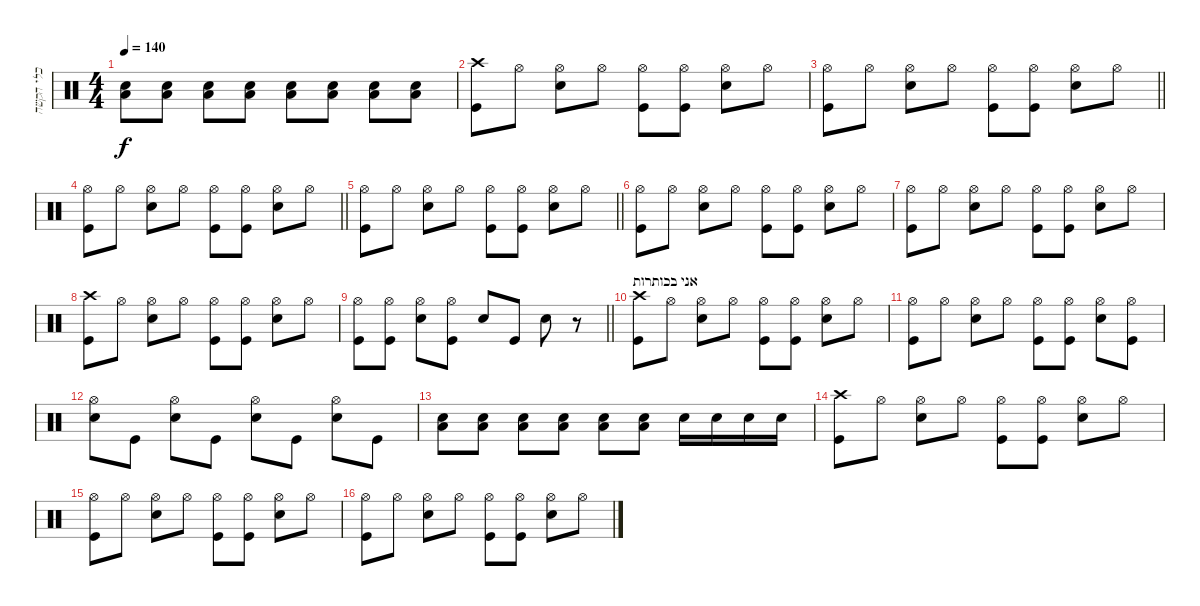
\track ("כלי הקשה" "כלי הקשה") {instrument percussion}
\staff {score}
\articulation defaults
\ts (4 4)
\tempo 140
\clef neutral
\ks c
("Low Floor Tom (hit)" "Snare (hit) 2").8{dy f} ("Low Floor Tom (hit)" "Snare (hit) 2").8 ("Low Floor Tom (hit)" "Snare (hit) 2").8 ("Low Floor Tom (hit)" "Snare (hit) 2").8 ("Low Floor Tom (hit)" "Snare (hit) 2").8 ("Low Floor Tom (hit)" "Snare (hit) 2").8 ("Low Floor Tom (hit)" "Snare (hit) 2").8 ("Low Floor Tom (hit)" "Snare (hit) 2").8 |
("Kick (hit)" "Crash high (hit)").8 "Hi-Hat (open)".8 ("Snare (hit) 2" "Hi-Hat (open)").8 "Hi-Hat (open)".8 ("Kick (hit)" "Hi-Hat (open)").8 ("Kick (hit)" "Hi-Hat (open)").8 ("Snare (hit) 2" "Hi-Hat (open)").8 "Hi-Hat (open)".8 |
\barLineRight lightlight
("Kick (hit)" "Hi-Hat (open)").8 "Hi-Hat (open)".8 ("Snare (hit) 2" "Hi-Hat (open)").8 "Hi-Hat (open)".8 ("Kick (hit)" "Hi-Hat (open)").8 ("Kick (hit)" "Hi-Hat (open)").8 ("Snare (hit) 2" "Hi-Hat (open)").8 "Hi-Hat (open)".8 |
\barLineRight lightlight
("Kick (hit)" "Hi-Hat (open)").8 "Hi-Hat (open)".8 ("Snare (hit) 2" "Hi-Hat (open)").8 "Hi-Hat (open)".8 ("Kick (hit)" "Hi-Hat (open)").8 ("Kick (hit)" "Hi-Hat (open)").8 ("Snare (hit) 2" "Hi-Hat (open)").8 "Hi-Hat (open)".8 |
\barLineRight lightlight
("Kick (hit)" "Hi-Hat (open)").8 "Hi-Hat (open)".8 ("Snare (hit) 2" "Hi-Hat (open)").8 "Hi-Hat (open)".8 ("Kick (hit)" "Hi-Hat (open)").8 ("Kick (hit)" "Hi-Hat (open)").8 ("Snare (hit) 2" "Hi-Hat (open)").8 "Hi-Hat (open)".8 |
("Kick (hit)" "Hi-Hat (open)").8 "Hi-Hat (open)".8 ("Snare (hit) 2" "Hi-Hat (open)").8 "Hi-Hat (open)".8 ("Kick (hit)" "Hi-Hat (open)").8 ("Kick (hit)" "Hi-Hat (open)").8 ("Snare (hit) 2" "Hi-Hat (open)").8 "Hi-Hat (open)".8 |
("Kick (hit)" "Hi-Hat (open)").8 "Hi-Hat (open)".8 ("Snare (hit) 2" "Hi-Hat (open)").8 "Hi-Hat (open)".8 ("Kick (hit)" "Hi-Hat (open)").8 ("Kick (hit)" "Hi-Hat (open)").8 ("Snare (hit) 2" "Hi-Hat (open)").8 "Hi-Hat (open)".8 |
("Kick (hit)" "Crash high (hit)").8 "Hi-Hat (open)".8 ("Snare (hit) 2" "Hi-Hat (open)").8 "Hi-Hat (open)".8 ("Kick (hit)" "Hi-Hat (open)").8 ("Kick (hit)" "Hi-Hat (open)").8 ("Snare (hit) 2" "Hi-Hat (open)").8 "Hi-Hat (open)".8 |
\barLineRight lightlight
("Kick (hit)" "Hi-Hat (open)").8 ("Kick (hit)" "Hi-Hat (open)").8 ("Snare (hit) 2" "Hi-Hat (open)").8 ("Kick (hit)" "Hi-Hat (open)").8 "Snare (hit) 2".8 "Kick (hit)".8 "Snare (hit) 2".8 r.8 |
\section ("" "אני בכותרות")
("Kick (hit)" "Crash high (hit)").8 "Hi-Hat (open)".8 ("Snare (hit) 2" "Hi-Hat (open)").8 "Hi-Hat (open)".8 ("Kick (hit)" "Hi-Hat (open)").8 ("Kick (hit)" "Hi-Hat (open)").8 ("Snare (hit) 2" "Hi-Hat (open)").8 "Hi-Hat (open)".8 |
("Kick (hit)" "Hi-Hat (open)").8 "Hi-Hat (open)".8 ("Snare (hit) 2" "Hi-Hat (open)").8 "Hi-Hat (open)".8 ("Kick (hit)" "Hi-Hat (open)").8 ("Kick (hit)" "Hi-Hat (open)").8 ("Snare (hit) 2" "Hi-Hat (open)").8 ("Kick (hit)" "Hi-Hat (open)").8 |
("Snare (hit) 2" "Hi-Hat (open)").8 "Kick (hit)".8 ("Snare (hit) 2" "Hi-Hat (open)").8 "Kick (hit)".8 ("Snare (hit) 2" "Hi-Hat (open)").8 "Kick (hit)".8 ("Snare (hit) 2" "Hi-Hat (open)").8 "Kick (hit)".8 |
("Low Floor Tom (hit)" "Snare (hit) 2").8 ("Low Floor Tom (hit)" "Snare (hit) 2").8 ("Low Floor Tom (hit)" "Snare (hit) 2").8 ("Low Floor Tom (hit)" "Snare (hit) 2").8 ("Low Floor Tom (hit)" "Snare (hit) 2").8 ("Low Floor Tom (hit)" "Snare (hit) 2").8 "Snare (hit) 2".16 "Snare (hit) 2".16 "Snare (hit) 2".16 "Snare (hit) 2".16 |
("Kick (hit)" "Crash high (hit)").8 "Hi-Hat (open)".8 ("Snare (hit) 2" "Hi-Hat (open)").8 "Hi-Hat (open)".8 ("Kick (hit)" "Hi-Hat (open)").8 ("Kick (hit)" "Hi-Hat (open)").8 ("Snare (hit) 2" "Hi-Hat (open)").8 "Hi-Hat (open)".8 |
("Kick (hit)" "Hi-Hat (open)").8 "Hi-Hat (open)".8 ("Snare (hit) 2" "Hi-Hat (open)").8 "Hi-Hat (open)".8 ("Kick (hit)" "Hi-Hat (open)").8 ("Kick (hit)" "Hi-Hat (open)").8 ("Snare (hit) 2" "Hi-Hat (open)").8 "Hi-Hat (open)".8 |
("Kick (hit)" "Hi-Hat (open)").8 "Hi-Hat (open)".8 ("Snare (hit) 2" "Hi-Hat (open)").8 "Hi-Hat (open)".8 ("Kick (hit)" "Hi-Hat (open)").8 ("Kick (hit)" "Hi-Hat (open)").8 ("Snare (hit) 2" "Hi-Hat (open)").8 "Hi-Hat (open)".8
